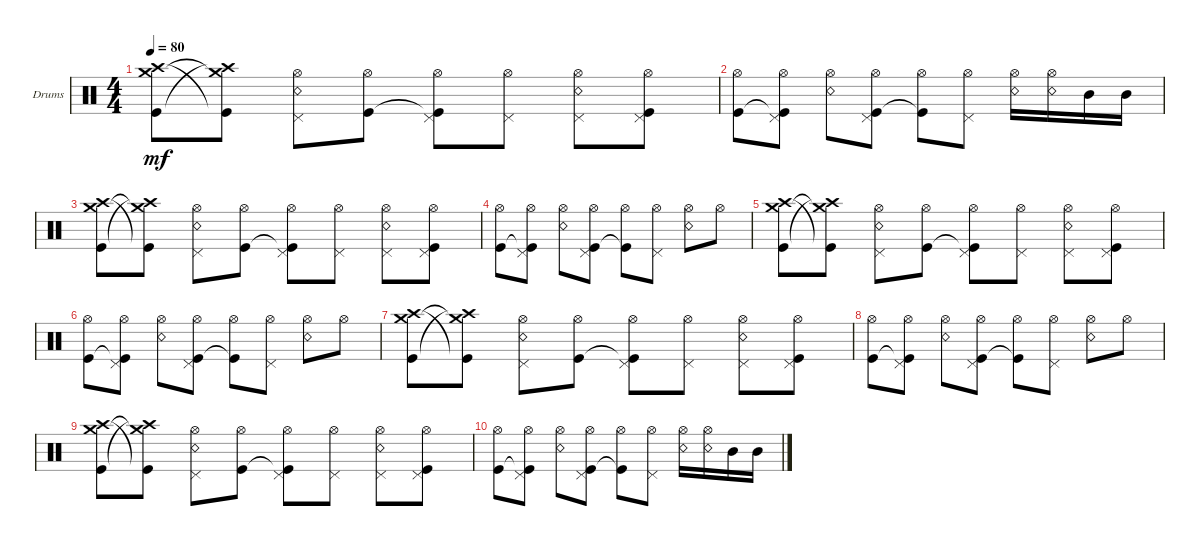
\defaultSystemsLayout 4
\bracketExtendMode groupsimilarinstruments
\firstSystemTrackNameOrientation horizontal
\otherSystemsTrackNameOrientation horizontal
\track ("Drum" "Drums") {multiBarRest instrument percussion}
\staff {score}
\articulation defaults
\ts (4 4)
\tempo 80
\clef neutral
\ks c
("Crash high (hit)" "Kick (hit)" "Crash medium (hit)").8{dy mf} ("Kick (hit)"{t} "Crash high (hit)"{t} "Crash medium (hit)"{t}).8 ("Snare (rim shot)" "Pedal Hi-Hat (hit)" "Hi-Hat (open)").8 ("Kick (hit)" "Hi-Hat (open)").8 ("Kick (hit)"{t} "Pedal Hi-Hat (hit)" "Hi-Hat (open)").8 ("Pedal Hi-Hat (hit)" "Hi-Hat (open)").8 ("Snare (rim shot)" "Pedal Hi-Hat (hit)" "Hi-Hat (open)").8 ("Kick (hit)" "Pedal Hi-Hat (hit)" "Hi-Hat (open)").8 |
("Kick (hit)" "Hi-Hat (open)").8 ("Kick (hit)"{t} "Pedal Hi-Hat (hit)" "Hi-Hat (open)").8 ("Snare (rim shot)" "Hi-Hat (open)").8 ("Kick (hit)" "Pedal Hi-Hat (hit)" "Hi-Hat (open)").8 ("Kick (hit)"{t} "Hi-Hat (open)").8 ("Pedal Hi-Hat (hit)" "Hi-Hat (open)").8 ("Snare (rim shot)" "Hi-Hat (open)").16 ("Hi-Hat (open)" "Snare (rim shot)").16 "Mid Tom (hit)".16 "Mid Tom (hit)".16 |
("Crash high (hit)" "Kick (hit)" "Crash medium (hit)").8 ("Kick (hit)"{t} "Crash high (hit)"{t} "Crash medium (hit)"{t}).8 ("Snare (rim shot)" "Pedal Hi-Hat (hit)" "Hi-Hat (open)").8 ("Kick (hit)" "Hi-Hat (open)").8 ("Kick (hit)"{t} "Pedal Hi-Hat (hit)" "Hi-Hat (open)").8 ("Pedal Hi-Hat (hit)" "Hi-Hat (open)").8 ("Snare (rim shot)" "Pedal Hi-Hat (hit)" "Hi-Hat (open)").8 ("Kick (hit)" "Pedal Hi-Hat (hit)" "Hi-Hat (open)").8 |
("Kick (hit)" "Hi-Hat (open)").8 ("Kick (hit)"{t} "Pedal Hi-Hat (hit)" "Hi-Hat (open)").8 ("Snare (rim shot)" "Hi-Hat (open)").8 ("Kick (hit)" "Pedal Hi-Hat (hit)" "Hi-Hat (open)").8 ("Kick (hit)"{t} "Hi-Hat (open)").8 ("Pedal Hi-Hat (hit)" "Hi-Hat (open)").8 ("Snare (rim shot)" "Hi-Hat (open)").8 "Hi-Hat (open)".8 |
("Crash high (hit)" "Kick (hit)" "Crash medium (hit)").8 ("Kick (hit)"{t} "Crash high (hit)"{t} "Crash medium (hit)"{t}).8 ("Snare (rim shot)" "Pedal Hi-Hat (hit)" "Hi-Hat (open)").8 ("Kick (hit)" "Hi-Hat (open)").8 ("Kick (hit)"{t} "Pedal Hi-Hat (hit)" "Hi-Hat (open)").8 ("Pedal Hi-Hat (hit)" "Hi-Hat (open)").8 ("Snare (rim shot)" "Pedal Hi-Hat (hit)" "Hi-Hat (open)").8 ("Kick (hit)" "Pedal Hi-Hat (hit)" "Hi-Hat (open)").8 |
("Kick (hit)" "Hi-Hat (open)").8 ("Kick (hit)"{t} "Pedal Hi-Hat (hit)" "Hi-Hat (open)").8 ("Snare (rim shot)" "Hi-Hat (open)").8 ("Kick (hit)" "Pedal Hi-Hat (hit)" "Hi-Hat (open)").8 ("Kick (hit)"{t} "Hi-Hat (open)").8 ("Pedal Hi-Hat (hit)" "Hi-Hat (open)").8 ("Snare (rim shot)" "Hi-Hat (open)").8 "Hi-Hat (open)".8 |
("Crash high (hit)" "Kick (hit)" "Crash medium (hit)").8 ("Kick (hit)"{t} "Crash high (hit)"{t} "Crash medium (hit)"{t}).8 ("Snare (rim shot)" "Pedal Hi-Hat (hit)" "Hi-Hat (open)").8 ("Kick (hit)" "Hi-Hat (open)").8 ("Kick (hit)"{t} "Pedal Hi-Hat (hit)" "Hi-Hat (open)").8 ("Pedal Hi-Hat (hit)" "Hi-Hat (open)").8 ("Snare (rim shot)" "Pedal Hi-Hat (hit)" "Hi-Hat (open)").8 ("Kick (hit)" "Pedal Hi-Hat (hit)" "Hi-Hat (open)").8 |
("Kick (hit)" "Hi-Hat (open)").8 ("Kick (hit)"{t} "Pedal Hi-Hat (hit)" "Hi-Hat (open)").8 ("Snare (rim shot)" "Hi-Hat (open)").8 ("Kick (hit)" "Pedal Hi-Hat (hit)" "Hi-Hat (open)").8 ("Kick (hit)"{t} "Hi-Hat (open)").8 ("Pedal Hi-Hat (hit)" "Hi-Hat (open)").8 ("Snare (rim shot)" "Hi-Hat (open)").8 "Hi-Hat (open)".8 |
("Crash high (hit)" "Kick (hit)" "Crash medium (hit)").8 ("Kick (hit)"{t} "Crash high (hit)"{t} "Crash medium (hit)"{t}).8 ("Snare (rim shot)" "Pedal Hi-Hat (hit)" "Hi-Hat (open)").8 ("Kick (hit)" "Hi-Hat (open)").8 ("Kick (hit)"{t} "Pedal Hi-Hat (hit)" "Hi-Hat (open)").8 ("Pedal Hi-Hat (hit)" "Hi-Hat (open)").8 ("Snare (rim shot)" "Pedal Hi-Hat (hit)" "Hi-Hat (open)").8 ("Kick (hit)" "Pedal Hi-Hat (hit)" "Hi-Hat (open)").8 |
("Kick (hit)" "Hi-Hat (open)").8 ("Kick (hit)"{t} "Pedal Hi-Hat (hit)" "Hi-Hat (open)").8 ("Snare (rim shot)" "Hi-Hat (open)").8 ("Kick (hit)" "Pedal Hi-Hat (hit)" "Hi-Hat (open)").8 ("Kick (hit)"{t} "Hi-Hat (open)").8 ("Pedal Hi-Hat (hit)" "Hi-Hat (open)").8 ("Snare (rim shot)" "Hi-Hat (open)").16 ("Hi-Hat (open)" "Snare (rim shot)").16 "Mid Tom (hit)".16 "Mid Tom (hit)".16
